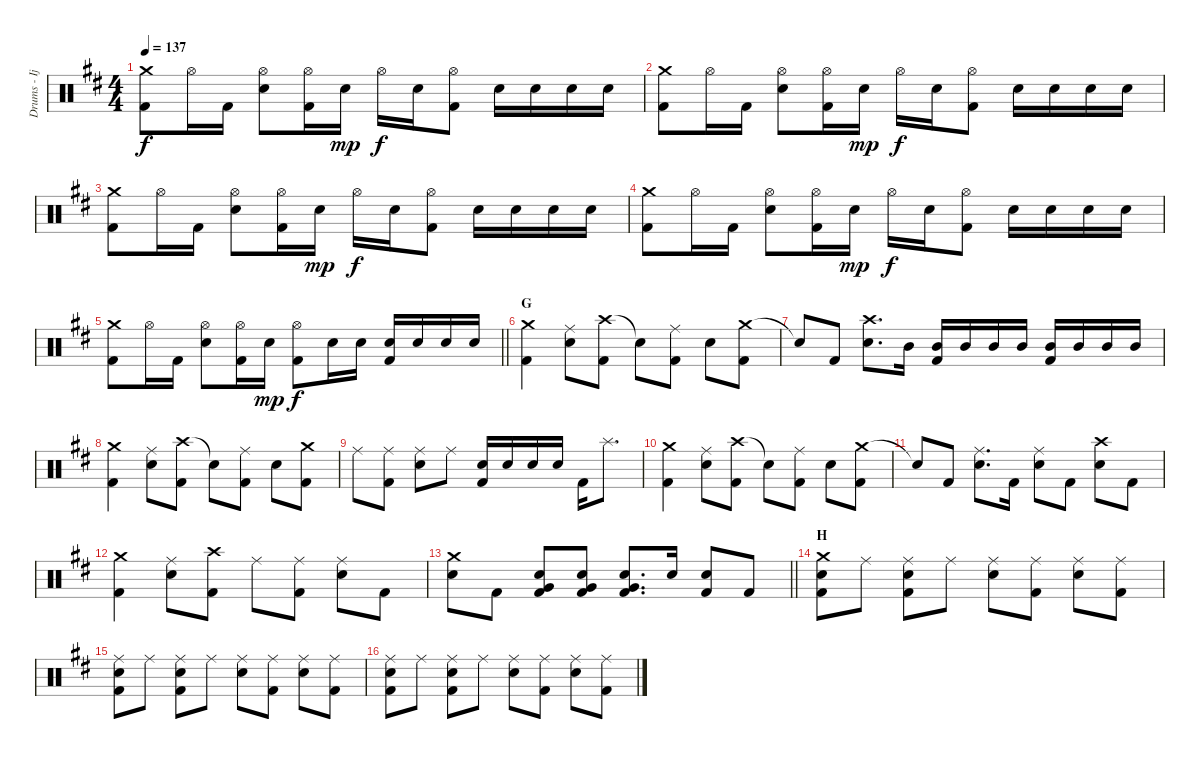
\track ("Drums - Ijichi" "Drums - Ij") {instrument percussion}
\staff {score}
\articulation defaults
\ts (4 4)
\tempo 137
\clef neutral
\ks d
("Crash medium (hit)" "Kick (hit) 2").8{dy f} "Hi-Hat (open)".16 "Kick (hit) 2".16 ("Hi-Hat (open)" "Electric Snare (hit)").8 ("Hi-Hat (open)" "Kick (hit) 2").16 "Electric Snare (hit)".16{dy mp} "Hi-Hat (open)".16{dy f} "Electric Snare (hit)".16 ("Hi-Hat (open)" "Kick (hit) 2").8 "Electric Snare (hit)".16 "Electric Snare (hit)".16 "Electric Snare (hit)".16 "Electric Snare (hit)".16 |
("Crash medium (hit)" "Kick (hit) 2").8 "Hi-Hat (open)".16 "Kick (hit) 2".16 ("Hi-Hat (open)" "Electric Snare (hit)").8 ("Hi-Hat (open)" "Kick (hit) 2").16 "Electric Snare (hit)".16{dy mp} "Hi-Hat (open)".16{dy f} "Electric Snare (hit)".16 ("Hi-Hat (open)" "Kick (hit) 2").8 "Electric Snare (hit)".16 "Electric Snare (hit)".16 "Electric Snare (hit)".16 "Electric Snare (hit)".16 |
("Crash medium (hit)" "Kick (hit) 2").8 "Hi-Hat (open)".16 "Kick (hit) 2".16 ("Hi-Hat (open)" "Electric Snare (hit)").8 ("Hi-Hat (open)" "Kick (hit) 2").16 "Electric Snare (hit)".16{dy mp} "Hi-Hat (open)".16{dy f} "Electric Snare (hit)".16 ("Hi-Hat (open)" "Kick (hit) 2").8 "Electric Snare (hit)".16 "Electric Snare (hit)".16 "Electric Snare (hit)".16 "Electric Snare (hit)".16 |
("Crash medium (hit)" "Kick (hit) 2").8 "Hi-Hat (open)".16 "Kick (hit) 2".16 ("Hi-Hat (open)" "Electric Snare (hit)").8 ("Hi-Hat (open)" "Kick (hit) 2").16 "Electric Snare (hit)".16{dy mp} "Hi-Hat (open)".16{dy f} "Electric Snare (hit)".16 ("Hi-Hat (open)" "Kick (hit) 2").8 "Electric Snare (hit)".16 "Electric Snare (hit)".16 "Electric Snare (hit)".16 "Electric Snare (hit)".16 |
\barLineRight lightlight
("Crash medium (hit)" "Kick (hit) 2").8 "Hi-Hat (open)".16 "Kick (hit) 2".16 ("Hi-Hat (open)" "Electric Snare (hit)").8 ("Hi-Hat (open)" "Kick (hit) 2").16 "Electric Snare (hit)".16{dy mp} ("Hi-Hat (open)" "Kick (hit) 2").8{dy f} "Electric Snare (hit)".16 "Electric Snare (hit)".16 ("Electric Snare (hit)" "Kick (hit) 2").16 "Electric Snare (hit)".16 "Electric Snare (hit)".16 "Electric Snare (hit)".16 |
\section ("" "G")
("Crash medium (hit)" "Kick (hit) 2").4 ("Ride (middle)" "Electric Snare (hit)").8 ("Crash high (hit)" "Kick (hit) 2").8 "Snare (hit)"{t}.8 ("Ride (middle)" "Kick (hit) 2").8 "Electric Snare (hit)".8 ("Crash medium (hit)" "Kick (hit) 2").8 |
"Snare (hit)"{t}.8 "Kick (hit) 2".8 ("Crash high (hit)" "Electric Snare (hit)").8{d} "Mid Tom (hit)".16 ("Mid Tom (hit)" "Kick (hit) 2").16 "Mid Tom (hit)".16 "Mid Tom (hit)".16 "Mid Tom (hit)".16 ("Mid Tom (hit)" "Kick (hit) 2").16 "Mid Tom (hit)".16 "Mid Tom (hit)".16 "Mid Tom (hit)".16 |
("Crash medium (hit)" "Kick (hit) 2").4 ("Ride (middle)" "Electric Snare (hit)").8 ("Crash high (hit)" "Kick (hit) 2").8 "Snare (hit)"{t}.8 ("Ride (middle)" "Kick (hit) 2").8 "Electric Snare (hit)".8 ("Crash medium (hit)" "Kick (hit) 2").8 |
"Ride (middle)".8 ("Ride (middle)" "Kick (hit) 2").8 ("Ride (middle)" "Electric Snare (hit)").8 "Ride (middle)".8 ("Electric Snare (hit)" "Kick (hit) 2").16 "Electric Snare (hit)".16 "Electric Snare (hit)".16 "Electric Snare (hit)".16 "Kick (hit) 2".16 "Splash (hit)".8{d} |
("Crash medium (hit)" "Kick (hit) 2").4 ("Ride (middle)" "Electric Snare (hit)").8 ("Crash high (hit)" "Kick (hit) 2").8 "Snare (hit)"{t}.8 ("Ride (middle)" "Kick (hit) 2").8 "Electric Snare (hit)".8 ("Crash medium (hit)" "Kick (hit) 2").8 |
"Snare (hit)"{t}.8 "Kick (hit) 2".8 ("Ride (middle)" "Electric Snare (hit)").8{d} "Kick (hit) 2".16 ("Ride (middle)" "Electric Snare (hit)").8 "Kick (hit) 2".8 ("Crash high (hit)" "Electric Snare (hit)").8 "Kick (hit) 2".8 |
("Crash medium (hit)" "Kick (hit) 2").4 ("Ride (middle)" "Electric Snare (hit)").8 ("Crash high (hit)" "Kick (hit) 2").8 "Ride (middle)".8 ("Ride (middle)" "Kick (hit) 2").8 ("Ride (middle)" "Electric Snare (hit)").8 "Kick (hit) 2".8 |
\barLineRight lightlight
("Crash medium (hit)" "Electric Snare (hit)").8 "Kick (hit) 2".8 ("Electric Snare (hit)" "Very Low Tom (hit)" "Kick (hit) 2").8 ("Electric Snare (hit)" "Very Low Tom (hit)" "Kick (hit) 2").8 ("Electric Snare (hit)" "Very Low Tom (hit)" "Kick (hit) 2").8{d} "Electric Snare (hit)".16 ("Electric Snare (hit)" "Kick (hit) 2").8 "Kick (hit) 2".8 |
\section ("" "H")
("Crash medium (hit)" "Electric Snare (hit)" "Kick (hit) 2").8 "Ride (middle)".8 ("Ride (middle)" "Electric Snare (hit)" "Kick (hit) 2").8 "Ride (middle)".8 ("Ride (middle)" "Electric Snare (hit)").8 ("Ride (middle)" "Kick (hit) 2").8 ("Ride (middle)" "Electric Snare (hit)").8 ("Ride (middle)" "Kick (hit) 2").8 |
("Ride (middle)" "Electric Snare (hit)" "Kick (hit) 2").8 "Ride (middle)".8 ("Ride (middle)" "Electric Snare (hit)" "Kick (hit) 2").8 "Ride (middle)".8 ("Ride (middle)" "Electric Snare (hit)").8 ("Ride (middle)" "Kick (hit) 2").8 ("Ride (middle)" "Electric Snare (hit)").8 ("Ride (middle)" "Kick (hit) 2").8 |
("Ride (middle)" "Electric Snare (hit)" "Kick (hit) 2").8 "Ride (middle)".8 ("Ride (middle)" "Electric Snare (hit)" "Kick (hit) 2").8 "Ride (middle)".8 ("Ride (middle)" "Electric Snare (hit)").8 ("Ride (middle)" "Kick (hit) 2").8 ("Ride (middle)" "Electric Snare (hit)").8 ("Ride (middle)" "Kick (hit) 2").8
